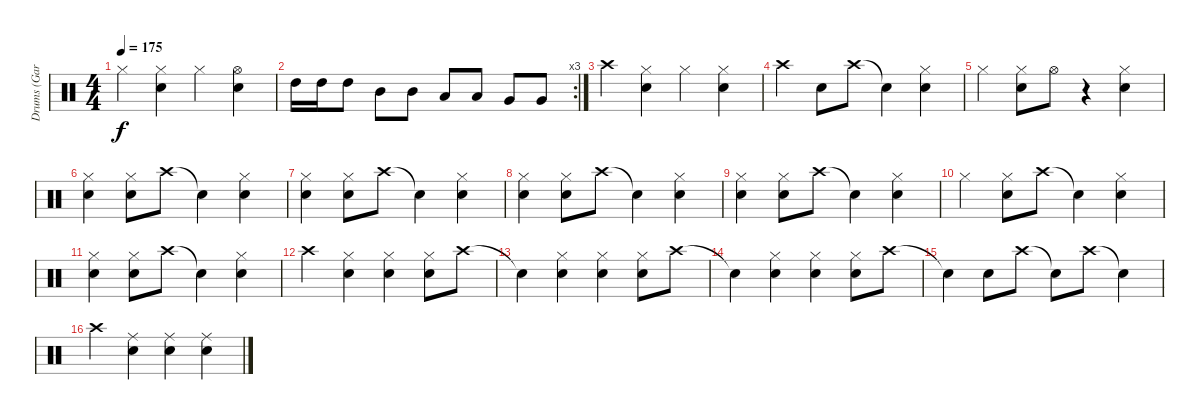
\track ("Drums (Gar Samuelson)" "Drums (Gar") {instrument percussion}
\staff {score}
\articulation defaults
\ts (4 4)
\tempo 175
\clef neutral
\ks c "Hi-Hat (closed)".4{dy f}
("Hi-Hat (closed)" "Snare (hit) 2").4 "Hi-Hat (closed)".4 ("Hi-Hat (open)" "Snare (hit) 2").4 |
\rc 3 "High Tom (hit)".16 "High Tom (hit)".16 "High Tom (hit)".8 "Mid Tom (hit)".8 "Mid Tom (hit)".8 "Low Tom (hit)".8 "Low Tom (hit)".8 "Very Low Tom (hit)".8 "Very Low Tom (hit)".8
|
"Crash high (hit)".4 ("Hi-Hat (closed)" "Snare (hit) 2").4 "Hi-Hat (closed)".4 ("Hi-Hat (closed)" "Snare (hit) 2").4 |
"Crash high (hit)".4 "Snare (hit) 2".8 "Crash high (hit)".8 "Snare (hit)"{t}.4 ("Hi-Hat (closed)" "Snare (hit) 2").4 |
"Hi-Hat (closed)".4 ("Hi-Hat (closed)" "Snare (hit) 2").8 "Hi-Hat (open)".8 r.4 ("Hi-Hat (closed)" "Snare (hit) 2").4 |
("Hi-Hat (closed)" "Snare (hit) 2").4 ("Hi-Hat (closed)" "Snare (hit) 2").8 "Crash high (hit)".8 "Snare (hit)"{t}.4 ("Hi-Hat (closed)" "Snare (hit) 2").4 |
("Hi-Hat (closed)" "Snare (hit) 2").4 ("Hi-Hat (closed)" "Snare (hit) 2").8 "Crash high (hit)".8 "Snare (hit)"{t}.4 ("Hi-Hat (closed)" "Snare (hit) 2").4 |
("Hi-Hat (closed)" "Snare (hit) 2").4 ("Hi-Hat (closed)" "Snare (hit) 2").8 "Crash high (hit)".8 "Snare (hit)"{t}.4 ("Hi-Hat (closed)" "Snare (hit) 2").4 |
("Hi-Hat (closed)" "Snare (hit) 2").4 ("Hi-Hat (closed)" "Snare (hit) 2").8 "Crash high (hit)".8 "Snare (hit)"{t}.4 ("Hi-Hat (closed)" "Snare (hit) 2").4 |
"Hi-Hat (closed)".4 ("Hi-Hat (closed)" "Snare (hit) 2").8 "Crash high (hit)".8 "Snare (hit)"{t}.4 ("Hi-Hat (closed)" "Snare (hit) 2").4 |
("Hi-Hat (closed)" "Snare (hit) 2").4 ("Hi-Hat (closed)" "Snare (hit) 2").8 "Crash high (hit)".8 "Snare (hit)"{t}.4 ("Hi-Hat (closed)" "Snare (hit) 2").4 |
"Crash high (hit)".4 ("Hi-Hat (closed)" "Snare (hit) 2").4 ("Hi-Hat (closed)" "Snare (hit) 2").4 ("Hi-Hat (closed)" "Snare (hit) 2").8 "Crash high (hit)".8 |
"Snare (hit)"{t}.4 ("Hi-Hat (closed)" "Snare (hit) 2").4 ("Hi-Hat (closed)" "Snare (hit) 2").4 ("Hi-Hat (closed)" "Snare (hit) 2").8 "Crash high (hit)".8 |
"Snare (hit)"{t}.4 ("Hi-Hat (closed)" "Snare (hit) 2").4 ("Hi-Hat (closed)" "Snare (hit) 2").4 ("Hi-Hat (closed)" "Snare (hit) 2").8 "Crash high (hit)".8 |
"Snare (hit)"{t}.4 "Snare (hit) 2".8 "Crash high (hit)".8 "Snare (hit)"{t}.8 "Crash high (hit)".8 "Snare (hit)"{t}.4 |
"Crash high (hit)".4 ("Ride (middle)" "Snare (hit) 2").4 ("Ride (middle)" "Snare (hit) 2").4 ("Ride (middle)" "Snare (hit) 2").4
